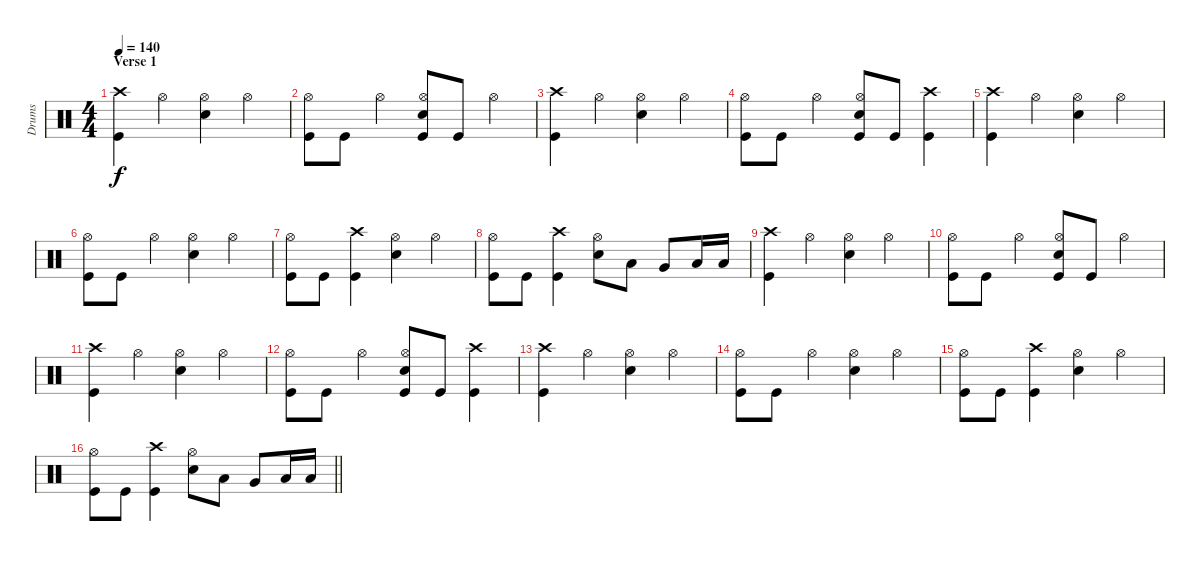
\track ("Drums" "Drums") {instrument percussion}
\staff {score}
\articulation defaults
\ts (4 4)
\section ("" "Verse 1")
\tempo 140
\clef neutral
\ks c
("Crash high (hit)" "Kick (hit)").4{dy f} "Hi-Hat (open)".4 ("Hi-Hat (open)" "Snare (hit) 2").4 "Hi-Hat (open)".4 |
("Hi-Hat (open)" "Kick (hit)").8 "Kick (hit)".8 "Hi-Hat (open)".4 ("Snare (hit) 2" "Kick (hit)" "Hi-Hat (open)").8 "Kick (hit)".8 "Hi-Hat (open)".4 |
("Crash high (hit)" "Kick (hit)").4 "Hi-Hat (open)".4 ("Hi-Hat (open)" "Snare (hit) 2").4 "Hi-Hat (open)".4 |
("Hi-Hat (open)" "Kick (hit)").8 "Kick (hit)".8 "Hi-Hat (open)".4 ("Snare (hit) 2" "Kick (hit)" "Hi-Hat (open)").8 "Kick (hit)".8 ("Crash high (hit)" "Kick (hit)").4 |
("Crash high (hit)" "Kick (hit)").4 "Hi-Hat (open)".4 ("Hi-Hat (open)" "Snare (hit) 2").4 "Hi-Hat (open)".4 |
("Hi-Hat (open)" "Kick (hit)").8 "Kick (hit)".8 "Hi-Hat (open)".4 ("Snare (hit) 2" "Hi-Hat (open)").4 "Hi-Hat (open)".4 |
("Kick (hit)" "Hi-Hat (open)").8 "Kick (hit)".8 ("Kick (hit)" "Crash high (hit)").4 ("Snare (hit) 2" "Hi-Hat (open)").4 "Hi-Hat (open)".4 |
("Kick (hit)" "Hi-Hat (open)").8 "Kick (hit)".8 ("Kick (hit)" "Crash high (hit)").4 ("Snare (hit) 2" "Hi-Hat (open)").8 "Low Tom (hit)".8 "Very Low Tom (hit)".8 "Low Floor Tom (hit)".16 "Low Floor Tom (hit)".16 |
("Crash high (hit)" "Kick (hit)").4 "Hi-Hat (open)".4 ("Hi-Hat (open)" "Snare (hit) 2").4 "Hi-Hat (open)".4 |
("Hi-Hat (open)" "Kick (hit)").8 "Kick (hit)".8 "Hi-Hat (open)".4 ("Snare (hit) 2" "Kick (hit)" "Hi-Hat (open)").8 "Kick (hit)".8 "Hi-Hat (open)".4 |
("Crash high (hit)" "Kick (hit)").4 "Hi-Hat (open)".4 ("Hi-Hat (open)" "Snare (hit) 2").4 "Hi-Hat (open)".4 |
("Hi-Hat (open)" "Kick (hit)").8 "Kick (hit)".8 "Hi-Hat (open)".4 ("Snare (hit) 2" "Kick (hit)" "Hi-Hat (open)").8 "Kick (hit)".8 ("Crash high (hit)" "Kick (hit)").4 |
("Crash high (hit)" "Kick (hit)").4 "Hi-Hat (open)".4 ("Hi-Hat (open)" "Snare (hit) 2").4 "Hi-Hat (open)".4 |
("Hi-Hat (open)" "Kick (hit)").8 "Kick (hit)".8 "Hi-Hat (open)".4 ("Snare (hit) 2" "Hi-Hat (open)").4 "Hi-Hat (open)".4 |
("Kick (hit)" "Hi-Hat (open)").8 "Kick (hit)".8 ("Kick (hit)" "Crash high (hit)").4 ("Snare (hit) 2" "Hi-Hat (open)").4 "Hi-Hat (open)".4 |
\barLineRight lightlight
("Kick (hit)" "Hi-Hat (open)").8 "Kick (hit)".8 ("Kick (hit)" "Crash high (hit)").4 ("Snare (hit) 2" "Hi-Hat (open)").8 "Low Tom (hit)".8 "Very Low Tom (hit)".8 "Low Floor Tom (hit)".16 "Low Floor Tom (hit)".16
